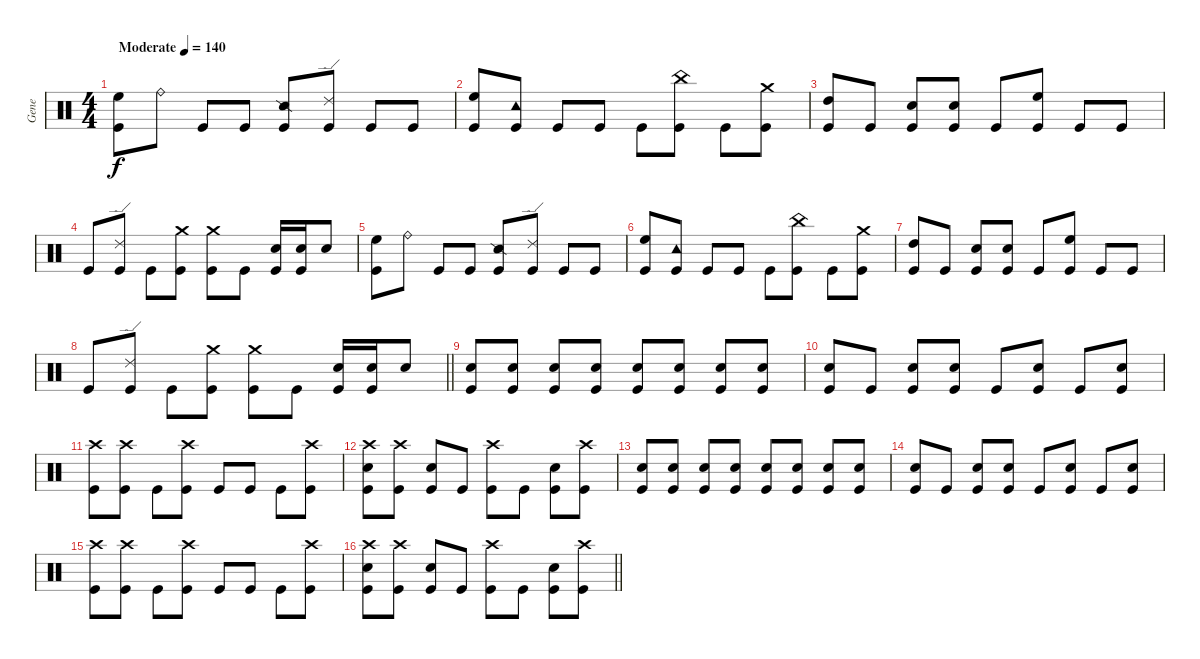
\track ("Gene" "Gene") {instrument percussion}
\staff
\articulation defaults
\ts (4 4)
\tempo (140 "Moderate")
\clef neutral
\ks c
("High Floor Tom (hit)" "Kick (hit)").8{dy f} "Ride (bell)".8 "Kick (hit)".8 "Kick (hit)".8 ("Snare (side stick) 2" "Kick (hit)").8 ("Ride (edge) 2" "Kick (hit)").8 "Kick (hit)".8 "Kick (hit)".8 |
("High Floor Tom (hit)" "Kick (hit)").8 ("Tambourine (hit)" "Kick (hit)").8 "Kick (hit)".8 "Kick (hit)".8 "Kick (hit)".8 ("China (hit)" "Kick (hit)").8 "Kick (hit)".8 ("Crash medium (hit)" "Kick (hit)").8 |
("High Tom (hit)" "Kick (hit)").8 "Kick (hit)".8 ("Electric Snare (hit)" "Kick (hit)").8 ("Electric Snare (hit)" "Kick (hit)").8 "Kick (hit)".8 ("High Floor Tom (hit)" "Kick (hit)").8 "Kick (hit)".8 "Kick (hit)".8 |
"Kick (hit)".8 ("Ride (edge) 2" "Kick (hit)").8 "Kick (hit)".8 ("Crash medium (hit)" "Kick (hit)").8 ("Crash medium (hit)" "Kick (hit)").8 "Kick (hit)".8 ("Snare (hit) 2" "Kick (hit)").16 ("Snare (hit) 2" "Kick (hit)").16 "Snare (hit) 2".8 |
("High Floor Tom (hit)" "Kick (hit)").8 "Ride (bell)".8 "Kick (hit)".8 "Kick (hit)".8 ("Snare (side stick) 2" "Kick (hit)").8 ("Ride (edge) 2" "Kick (hit)").8 "Kick (hit)".8 "Kick (hit)".8 |
("High Floor Tom (hit)" "Kick (hit)").8 ("Tambourine (hit)" "Kick (hit)").8 "Kick (hit)".8 "Kick (hit)".8 "Kick (hit)".8 ("China (hit)" "Kick (hit)").8 "Kick (hit)".8 ("Crash medium (hit)" "Kick (hit)").8 |
("High Tom (hit)" "Kick (hit)").8 "Kick (hit)".8 ("Electric Snare (hit)" "Kick (hit)").8 ("Electric Snare (hit)" "Kick (hit)").8 "Kick (hit)".8 ("High Floor Tom (hit)" "Kick (hit)").8 "Kick (hit)".8 "Kick (hit)".8 |
\barLineRight lightlight "Kick (hit)".8
("Ride (edge) 2" "Kick (hit)").8 "Kick (hit)".8 ("Crash medium (hit)" "Kick (hit)").8 ("Crash medium (hit)" "Kick (hit)").8 "Kick (hit)".8 ("Snare (hit) 2" "Kick (hit)").16 ("Snare (hit) 2" "Kick (hit)").16 "Snare (hit) 2".8 |
("Snare (hit) 2" "Kick (hit)").8 ("Snare (hit) 2" "Kick (hit)").8 ("Snare (hit) 2" "Kick (hit)").8 ("Snare (hit) 2" "Kick (hit)").8 ("Snare (hit) 2" "Kick (hit)").8 ("Snare (hit) 2" "Kick (hit)").8 ("Snare (hit) 2" "Kick (hit)").8 ("Snare (hit) 2" "Kick (hit)").8 |
("Snare (hit) 2" "Kick (hit)").8 "Kick (hit)".8 ("Snare (hit) 2" "Kick (hit)").8 ("Snare (hit) 2" "Kick (hit)").8 "Kick (hit)".8 ("Snare (hit) 2" "Kick (hit)").8 "Kick (hit)".8 ("Snare (hit) 2" "Kick (hit)").8 |
("Crash high (hit)" "Kick (hit)").8 ("Crash high (hit)" "Kick (hit)").8 "Kick (hit)".8 ("Crash high (hit)" "Kick (hit)").8 "Kick (hit)".8 "Kick (hit)".8 "Kick (hit)".8 ("Crash high (hit)" "Kick (hit)").8 |
("Snare (hit) 2" "Crash high (hit)" "Kick (hit)").8 ("Crash high (hit)" "Kick (hit)").8 ("Snare (hit) 2" "Kick (hit)").8 "Kick (hit)".8 ("Crash high (hit)" "Kick (hit)").8 "Kick (hit)".8 ("Snare (hit) 2" "Kick (hit)").8 ("Crash high (hit)" "Kick (hit)").8 |
("Snare (hit) 2" "Kick (hit)").8 ("Snare (hit) 2" "Kick (hit)").8 ("Snare (hit) 2" "Kick (hit)").8 ("Snare (hit) 2" "Kick (hit)").8 ("Snare (hit) 2" "Kick (hit)").8 ("Snare (hit) 2" "Kick (hit)").8 ("Snare (hit) 2" "Kick (hit)").8 ("Snare (hit) 2" "Kick (hit)").8 |
("Snare (hit) 2" "Kick (hit)").8 "Kick (hit)".8 ("Snare (hit) 2" "Kick (hit)").8 ("Snare (hit) 2" "Kick (hit)").8 "Kick (hit)".8 ("Snare (hit) 2" "Kick (hit)").8 "Kick (hit)".8 ("Snare (hit) 2" "Kick (hit)").8 |
("Crash high (hit)" "Kick (hit)").8 ("Crash high (hit)" "Kick (hit)").8 "Kick (hit)".8 ("Crash high (hit)" "Kick (hit)").8 "Kick (hit)".8 "Kick (hit)".8 "Kick (hit)".8 ("Crash high (hit)" "Kick (hit)").8 |
\barLineRight lightlight
("Snare (hit) 2" "Crash high (hit)" "Kick (hit)").8 ("Crash high (hit)" "Kick (hit)").8 ("Snare (hit) 2" "Kick (hit)").8 "Kick (hit)".8 ("Crash high (hit)" "Kick (hit)").8 "Kick (hit)".8 ("Snare (hit) 2" "Kick (hit)").8 ("Crash high (hit)" "Kick (hit)").8
